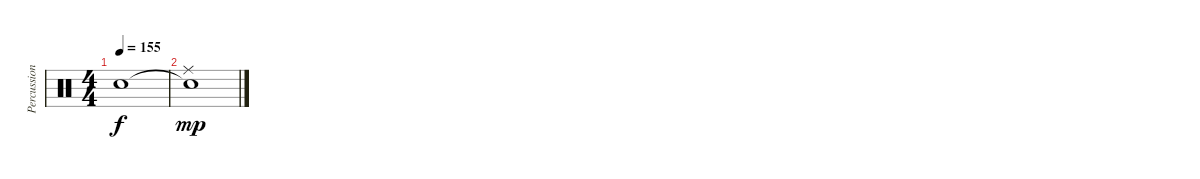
\track ("Percussion" "Percussion") {instrument percussion}
\staff {score}
\articulation defaults
\ts (4 4)
\tempo 155
\clef neutral
\ks c "Snare (hit)"{t}.1{dy f}
|
("Snare (hit)"{t} "Ride (middle)").1{dy mp}
